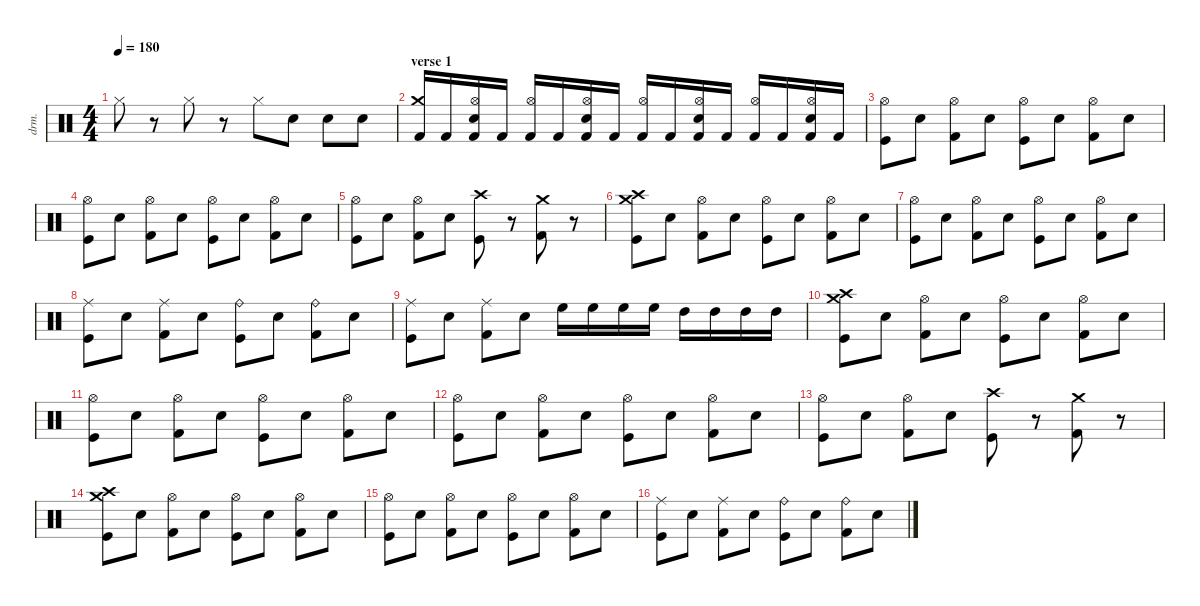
\defaultSystemsLayout 4
\hideDynamics
\bracketExtendMode nobrackets
\otherSystemsTrackNameOrientation horizontal
\track ("Joosep" "drm.") {instrument percussion}
\staff {score}
\articulation defaults
\ts (4 4)
\tempo 180
\clef neutral
\ks c "Hi-Hat (closed)".8{dy mf beam Down}
r.8{beam Down} "Hi-Hat (closed)".8{beam Down} r.8{beam Down} "Hi-Hat (closed)".8{beam Down} "Snare (hit) 2".8{beam Down} "Snare (hit) 2".8{beam Down} "Snare (hit) 2".8{beam Down} |
\section ("" "verse 1")
("Kick (hit) 2" "Crash medium (hit)").16{beam Up} "Kick (hit) 2".16{beam Up} ("Kick (hit) 2" "Snare (hit) 2" "Hi-Hat (open)").16{beam Up} "Kick (hit) 2".16{beam Up} ("Kick (hit) 2" "Hi-Hat (open)").16{beam Up} "Kick (hit) 2".16{beam Up} ("Kick (hit) 2" "Snare (hit) 2" "Hi-Hat (open)").16{beam Up} "Kick (hit) 2".16{beam Up} ("Kick (hit) 2" "Hi-Hat (open)").16{beam Up} "Kick (hit) 2".16{beam Up} ("Kick (hit) 2" "Snare (hit) 2" "Hi-Hat (open)").16{beam Up} "Kick (hit) 2".16{beam Up} ("Kick (hit) 2" "Hi-Hat (open)").16{beam Up} "Kick (hit) 2".16{beam Up} ("Kick (hit) 2" "Snare (hit) 2" "Hi-Hat (open)").16{beam Up} "Kick (hit) 2".16{beam Up} |
("Kick (hit)" "Hi-Hat (open)").8{beam Down} "Snare (hit) 2".8{beam Down} ("Hi-Hat (open)" "Kick (hit) 2").8{beam Down} "Snare (hit) 2".8{beam Down} ("Kick (hit)" "Hi-Hat (open)").8{beam Down} "Snare (hit) 2".8{beam Down} ("Hi-Hat (open)" "Kick (hit) 2").8{beam Down} "Snare (hit) 2".8{beam Down} |
("Kick (hit)" "Hi-Hat (open)").8{beam Down} "Snare (hit) 2".8{beam Down} ("Hi-Hat (open)" "Kick (hit) 2").8{beam Down} "Snare (hit) 2".8{beam Down} ("Kick (hit)" "Hi-Hat (open)").8{beam Down} "Snare (hit) 2".8{beam Down} ("Hi-Hat (open)" "Kick (hit) 2").8{beam Down} "Snare (hit) 2".8{beam Down} |
("Kick (hit)" "Hi-Hat (open)").8{beam Down} "Snare (hit) 2".8{beam Down} ("Hi-Hat (open)" "Kick (hit) 2").8{beam Down} "Snare (hit) 2".8{beam Down} ("Kick (hit)" "Crash high (hit)").8{beam Down} r.8{beam Down} ("Kick (hit) 2" "Crash medium (hit)").8{beam Down} r.8{beam Down} |
("Kick (hit)" "Crash high (hit)" "Crash medium (hit)").8{beam Down} "Snare (hit) 2".8{beam Down} ("Hi-Hat (open)" "Kick (hit) 2").8{beam Down} "Snare (hit) 2".8{beam Down} ("Kick (hit)" "Hi-Hat (open)").8{beam Down} "Snare (hit) 2".8{beam Down} ("Hi-Hat (open)" "Kick (hit) 2").8{beam Down} "Snare (hit) 2".8{beam Down} |
("Kick (hit)" "Hi-Hat (open)").8{beam Down} "Snare (hit) 2".8{beam Down} ("Hi-Hat (open)" "Kick (hit) 2").8{beam Down} "Snare (hit) 2".8{beam Down} ("Kick (hit)" "Hi-Hat (open)").8{beam Down} "Snare (hit) 2".8{beam Down} ("Hi-Hat (open)" "Kick (hit) 2").8{beam Down} "Snare (hit) 2".8{beam Down} |
("Kick (hit)" "Ride (middle)").8{beam Down} "Snare (hit) 2".8{beam Down} ("Kick (hit) 2" "Ride (middle)").8{beam Down} "Snare (hit) 2".8{beam Down} ("Kick (hit)" "Ride (bell)").8{beam Down} "Snare (hit) 2".8{beam Down} ("Kick (hit) 2" "Ride (bell)").8{beam Down} "Snare (hit) 2".8{beam Down} |
("Kick (hit)" "Ride (middle)").8{beam Down} "Snare (hit) 2".8{beam Down} ("Kick (hit) 2" "Ride (middle)").8{beam Down} "Snare (hit) 2".8{beam Down} "High Floor Tom (hit)".16{beam Down} "High Floor Tom (hit)".16{beam Down} "High Floor Tom (hit)".16{beam Down} "High Floor Tom (hit)".16{beam Down} "High Tom (hit)".16{beam Down} "High Tom (hit)".16{beam Down} "High Tom (hit)".16{beam Down} "High Tom (hit)".16{beam Down} |
("Kick (hit)" "Crash high (hit)" "Crash medium (hit)").8{beam Down} "Snare (hit) 2".8{beam Down} ("Hi-Hat (open)" "Kick (hit) 2").8{beam Down} "Snare (hit) 2".8{beam Down} ("Kick (hit)" "Hi-Hat (open)").8{beam Down} "Snare (hit) 2".8{beam Down} ("Hi-Hat (open)" "Kick (hit) 2").8{beam Down} "Snare (hit) 2".8{beam Down} |
("Kick (hit)" "Hi-Hat (open)").8{beam Down} "Snare (hit) 2".8{beam Down} ("Hi-Hat (open)" "Kick (hit) 2").8{beam Down} "Snare (hit) 2".8{beam Down} ("Kick (hit)" "Hi-Hat (open)").8{beam Down} "Snare (hit) 2".8{beam Down} ("Hi-Hat (open)" "Kick (hit) 2").8{beam Down} "Snare (hit) 2".8{beam Down} |
("Kick (hit)" "Hi-Hat (open)").8{beam Down} "Snare (hit) 2".8{beam Down} ("Hi-Hat (open)" "Kick (hit) 2").8{beam Down} "Snare (hit) 2".8{beam Down} ("Kick (hit)" "Hi-Hat (open)").8{beam Down} "Snare (hit) 2".8{beam Down} ("Hi-Hat (open)" "Kick (hit) 2").8{beam Down} "Snare (hit) 2".8{beam Down} |
("Kick (hit)" "Hi-Hat (open)").8{beam Down} "Snare (hit) 2".8{beam Down} ("Hi-Hat (open)" "Kick (hit) 2").8{beam Down} "Snare (hit) 2".8{beam Down} ("Kick (hit)" "Crash high (hit)").8{beam Down} r.8{beam Down} ("Kick (hit) 2" "Crash medium (hit)").8{beam Down} r.8{beam Down} |
("Kick (hit)" "Crash high (hit)" "Crash medium (hit)").8{beam Down} "Snare (hit) 2".8{beam Down} ("Hi-Hat (open)" "Kick (hit) 2").8{beam Down} "Snare (hit) 2".8{beam Down} ("Kick (hit)" "Hi-Hat (open)").8{beam Down} "Snare (hit) 2".8{beam Down} ("Hi-Hat (open)" "Kick (hit) 2").8{beam Down} "Snare (hit) 2".8{beam Down} |
("Kick (hit)" "Hi-Hat (open)").8{beam Down} "Snare (hit) 2".8{beam Down} ("Hi-Hat (open)" "Kick (hit) 2").8{beam Down} "Snare (hit) 2".8{beam Down} ("Kick (hit)" "Hi-Hat (open)").8{beam Down} "Snare (hit) 2".8{beam Down} ("Hi-Hat (open)" "Kick (hit) 2").8{beam Down} "Snare (hit) 2".8{beam Down} |
("Kick (hit)" "Ride (middle)").8{beam Down} "Snare (hit) 2".8{beam Down} ("Kick (hit) 2" "Ride (middle)").8{beam Down} "Snare (hit) 2".8{beam Down} ("Kick (hit)" "Ride (bell)").8{beam Down} "Snare (hit) 2".8{beam Down} ("Kick (hit) 2" "Ride (bell)").8{beam Down} "Snare (hit) 2".8{beam Down}
